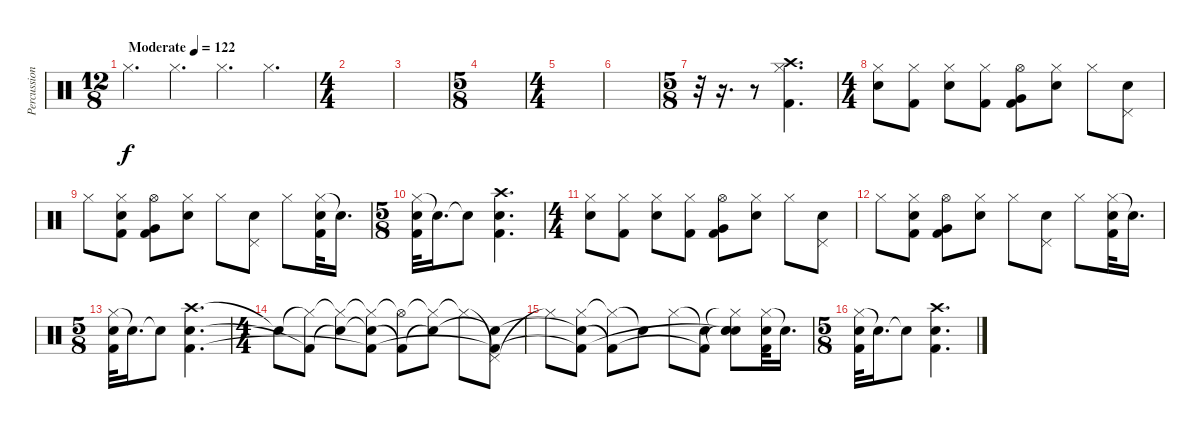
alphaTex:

\track ("Percussion" "Percussion") {instrument percussion}
\staff {score}
\articulation defaults
\ts (12 8)
\tempo (122 "Moderate")
\clef neutral
\ks c "Hi-Hat (closed)".4{d dy f} "Hi-Hat (closed)".4{d} "Hi-Hat (closed)".4{d} "Hi-Hat (closed)".4{d}
|
\ts (4 4)
|
|
\ts (5 8)
|
\ts (4 4)
|
|
\ts (5 8)
r.32 r.16{d} r.8 ("Crash high (hit)" "Hi-Hat (closed)" "Kick (hit) 2").4{d} |
\ts (4 4)
("Hi-Hat (closed)" "Snare (hit) 2").8 ("Hi-Hat (closed)" "Kick (hit) 2").8 ("Hi-Hat (closed)" "Snare (hit) 2").8 ("Hi-Hat (closed)" "Kick (hit) 2").8 ("Hi-Hat (open)" "Very Low Tom (hit)" "Kick (hit) 2").8 ("Hi-Hat (closed)" "Snare (hit) 2").8 "Hi-Hat (closed)".8 ("Pedal Hi-Hat (hit)" "Snare (hit) 2").8 |
"Hi-Hat (closed)".8 ("Hi-Hat (closed)" "Snare (hit) 2" "Kick (hit) 2").8 ("Hi-Hat (open)" "Very Low Tom (hit)" "Kick (hit) 2").8 ("Hi-Hat (closed)" "Snare (hit) 2").8 "Hi-Hat (closed)".8 ("Pedal Hi-Hat (hit)" "Snare (hit) 2").8 "Hi-Hat (closed)".8 ("Hi-Hat (closed)" "Snare (hit) 2" "Kick (hit) 2").32 "Electric Snare (hit)"{t}.16{d} |
\ts (5 8)
("Hi-Hat (closed)" "Snare (hit) 2" "Kick (hit) 2").32 "Electric Snare (hit)"{t}.16{d} "Electric Snare (hit)"{t}.8 ("Crash high (hit)" "Snare (hit) 2" "Kick (hit) 2").4{d} |
\ts (4 4)
("Hi-Hat (closed)" "Snare (hit) 2").8 ("Hi-Hat (closed)" "Kick (hit) 2").8 ("Hi-Hat (closed)" "Snare (hit) 2").8 ("Hi-Hat (closed)" "Kick (hit) 2").8 ("Hi-Hat (open)" "Very Low Tom (hit)" "Kick (hit) 2").8 ("Hi-Hat (closed)" "Snare (hit) 2").8 "Hi-Hat (closed)".8 ("Pedal Hi-Hat (hit)" "Snare (hit) 2").8 |
"Hi-Hat (closed)".8 ("Hi-Hat (closed)" "Snare (hit) 2" "Kick (hit) 2").8 ("Hi-Hat (open)" "Very Low Tom (hit)" "Kick (hit) 2").8 ("Hi-Hat (closed)" "Snare (hit) 2").8 "Hi-Hat (closed)".8 ("Pedal Hi-Hat (hit)" "Snare (hit) 2").8 "Hi-Hat (closed)".8 ("Hi-Hat (closed)" "Snare (hit) 2" "Kick (hit) 2").32 "Electric Snare (hit)"{t}.16{d} |
\ts (5 8)
("Hi-Hat (closed)" "Snare (hit) 2" "Kick (hit) 2").32 "Electric Snare (hit)"{t}.16{d} "Electric Snare (hit)"{t}.8 ("Crash high (hit)" "Snare (hit) 2" "Kick (hit) 2").4{d} |
\ts (4 4)
"Electric Snare (hit)"{t}.8 ("Hi-Hat (closed)"{t} "Kick (hit) 2"{t}).8 ("Hi-Hat (closed)"{t} "Electric Snare (hit)"{t}).8 ("Hi-Hat (closed)"{t} "Electric Snare (hit)"{t} "Kick (hit) 2"{t}).8 ("Hi-Hat (open)"{t} "Kick (hit) 2"{t}).8 ("Hi-Hat (closed)"{t} "Electric Snare (hit)"{t}).8 "Hi-Hat (closed)"{t}.8 ("Pedal Hi-Hat (hit)"{t} "Electric Snare (hit)"{t} "Kick (hit) 2"{t}).8 |
"Hi-Hat (closed)"{t}.8 ("Hi-Hat (closed)" "Electric Snare (hit)"{t} "Kick (hit) 2"{t}).8 ("Hi-Hat (closed)"{t} "Kick (hit) 2"{t}).8 "Electric Snare (hit)"{t}.8 "Hi-Hat (closed)".8 ("Electric Snare (hit)"{t} "Kick (hit) 2"{t}).8 ("Hi-Hat (closed)"{t} "Snare (hit)"{t} "Snare (hit)"{t} "Snare (hit)").8 ("Hi-Hat (closed)" "Snare (hit) 2" "Kick (hit) 2").32 "Electric Snare (hit)"{t}.16{d} |
\ts (5 8)
("Hi-Hat (closed)" "Snare (hit) 2" "Kick (hit) 2").32 "Electric Snare (hit)"{t}.16{d} "Electric Snare (hit)"{t}.8 ("Crash high (hit)" "Snare (hit) 2" "Kick (hit) 2").4{d}
